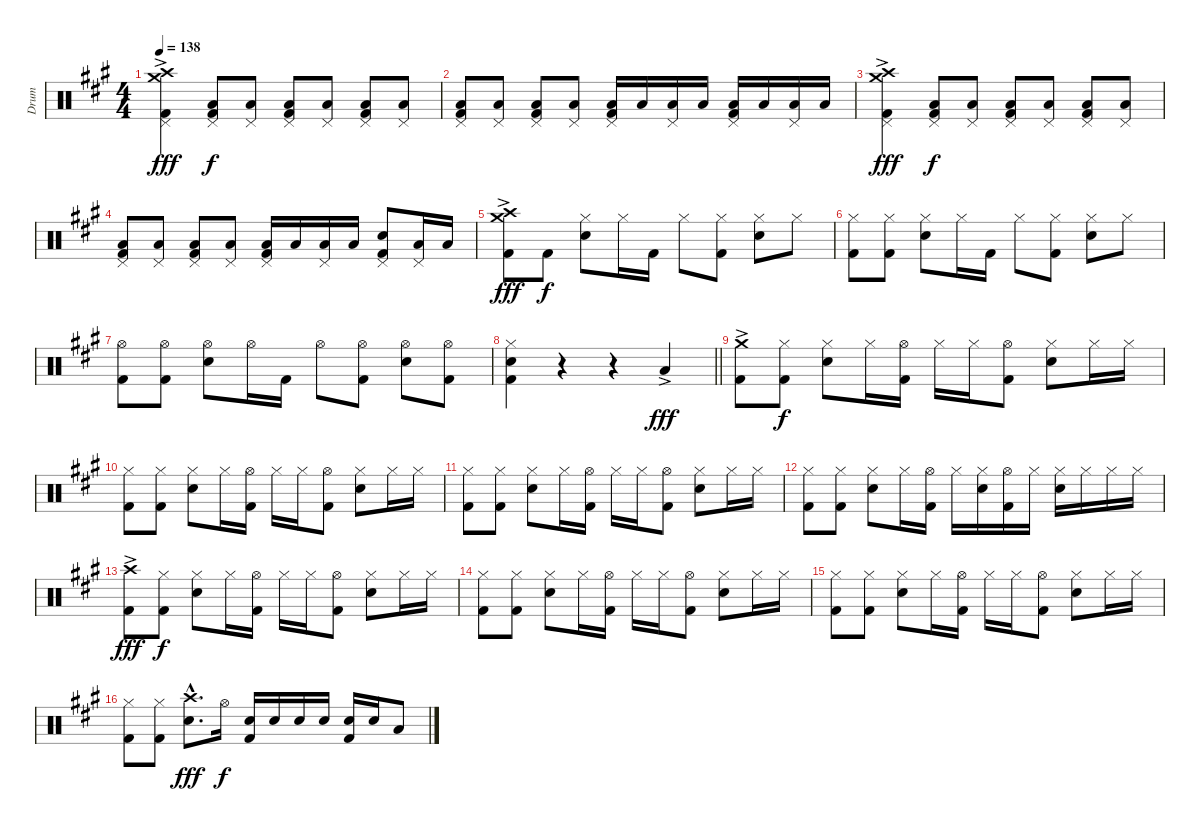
\track ("Drum" "Drum") {instrument percussion}
\staff {score}
\articulation defaults
\ts (4 4)
\tempo 138
\clef neutral
\ks a
("Crash medium (hit)"{ac} "Crash high (hit)"{ac} "Pedal Hi-Hat (hit)" "Kick (hit) 2").4{dy fff} ("Low Floor Tom (hit)" "Pedal Hi-Hat (hit)" "Kick (hit) 2").8{dy f} ("Low Floor Tom (hit)" "Pedal Hi-Hat (hit)").8 ("Low Floor Tom (hit)" "Pedal Hi-Hat (hit)" "Kick (hit) 2").8 ("Low Floor Tom (hit)" "Pedal Hi-Hat (hit)").8 ("Low Floor Tom (hit)" "Pedal Hi-Hat (hit)" "Kick (hit) 2").8 ("Low Floor Tom (hit)" "Pedal Hi-Hat (hit)").8 |
("Low Floor Tom (hit)" "Pedal Hi-Hat (hit)" "Kick (hit) 2").8 ("Low Floor Tom (hit)" "Pedal Hi-Hat (hit)").8 ("Low Floor Tom (hit)" "Pedal Hi-Hat (hit)" "Kick (hit) 2").8 ("Low Floor Tom (hit)" "Pedal Hi-Hat (hit)").8 ("Low Floor Tom (hit)" "Pedal Hi-Hat (hit)" "Kick (hit) 2").16 "Low Floor Tom (hit)".16 ("Low Floor Tom (hit)" "Pedal Hi-Hat (hit)").16 "Low Floor Tom (hit)".16 ("Low Floor Tom (hit)" "Pedal Hi-Hat (hit)" "Kick (hit) 2").16 "Low Floor Tom (hit)".16 ("Low Floor Tom (hit)" "Pedal Hi-Hat (hit)").16 "Low Floor Tom (hit)".16 |
("Crash medium (hit)"{ac} "Crash high (hit)"{ac} "Pedal Hi-Hat (hit)" "Kick (hit) 2").4{dy fff} ("Low Floor Tom (hit)" "Pedal Hi-Hat (hit)" "Kick (hit) 2").8{dy f} ("Low Floor Tom (hit)" "Pedal Hi-Hat (hit)").8 ("Low Floor Tom (hit)" "Pedal Hi-Hat (hit)" "Kick (hit) 2").8 ("Low Floor Tom (hit)" "Pedal Hi-Hat (hit)").8 ("Low Floor Tom (hit)" "Pedal Hi-Hat (hit)" "Kick (hit) 2").8 ("Low Floor Tom (hit)" "Pedal Hi-Hat (hit)").8 |
("Low Floor Tom (hit)" "Pedal Hi-Hat (hit)" "Kick (hit) 2").8 ("Low Floor Tom (hit)" "Pedal Hi-Hat (hit)").8 ("Low Floor Tom (hit)" "Pedal Hi-Hat (hit)" "Kick (hit) 2").8 ("Low Floor Tom (hit)" "Pedal Hi-Hat (hit)").8 ("Low Floor Tom (hit)" "Pedal Hi-Hat (hit)" "Kick (hit) 2").16 "Low Floor Tom (hit)".16 ("Low Floor Tom (hit)" "Pedal Hi-Hat (hit)").16 "Low Floor Tom (hit)".16 ("Pedal Hi-Hat (hit)" "Snare (hit) 2" "Kick (hit) 2").8 ("Low Floor Tom (hit)" "Pedal Hi-Hat (hit)").16 "Low Floor Tom (hit)".16 |
("Crash medium (hit)"{ac} "Crash high (hit)"{ac} "Kick (hit) 2").8{dy fff} "Kick (hit) 2".8{dy f} ("Hi-Hat (closed)" "Snare (hit) 2").8 "Hi-Hat (closed)".16 "Kick (hit) 2".16 "Hi-Hat (closed)".8 ("Hi-Hat (closed)" "Kick (hit) 2").8 ("Hi-Hat (closed)" "Snare (hit) 2").8 "Hi-Hat (closed)".8 |
("Hi-Hat (closed)" "Kick (hit) 2").8 ("Hi-Hat (closed)" "Kick (hit) 2").8 ("Hi-Hat (closed)" "Snare (hit) 2").8 "Hi-Hat (closed)".16 "Kick (hit) 2".16 "Hi-Hat (closed)".8 ("Hi-Hat (closed)" "Kick (hit) 2").8 ("Hi-Hat (closed)" "Snare (hit) 2").8 "Hi-Hat (closed)".8 |
("Hi-Hat (open)" "Kick (hit) 2").8 ("Hi-Hat (open)" "Kick (hit) 2").8 ("Hi-Hat (open)" "Snare (hit) 2").8 "Hi-Hat (open)".16 "Kick (hit) 2".16 "Hi-Hat (open)".8 ("Hi-Hat (open)" "Kick (hit) 2").8 ("Hi-Hat (open)" "Snare (hit) 2").8 ("Hi-Hat (open)" "Kick (hit) 2").8 |
\barLineRight lightlight
("Hi-Hat (closed)" "Snare (hit) 2" "Kick (hit) 2").4 r.4 r.4 "Low Floor Tom (hit)"{ac}.4{dy fff} |
("Crash medium (hit)"{ac} "Kick (hit) 2").8 ("Hi-Hat (closed)" "Kick (hit) 2").8{dy f} ("Hi-Hat (closed)" "Snare (hit) 2").8 "Hi-Hat (closed)".16 ("Hi-Hat (open)" "Kick (hit) 2").16 "Hi-Hat (closed)".16 "Hi-Hat (closed)".16 ("Hi-Hat (open)" "Kick (hit) 2").8 ("Hi-Hat (closed)" "Snare (hit) 2").8 "Hi-Hat (closed)".16 "Hi-Hat (closed)".16 |
("Hi-Hat (closed)" "Kick (hit) 2").8 ("Hi-Hat (closed)" "Kick (hit) 2").8 ("Hi-Hat (closed)" "Snare (hit) 2").8 "Hi-Hat (closed)".16 ("Hi-Hat (open)" "Kick (hit) 2").16 "Hi-Hat (closed)".16 "Hi-Hat (closed)".16 ("Hi-Hat (open)" "Kick (hit) 2").8 ("Hi-Hat (closed)" "Snare (hit) 2").8 "Hi-Hat (closed)".16 "Hi-Hat (closed)".16 |
("Hi-Hat (closed)" "Kick (hit) 2").8 ("Hi-Hat (closed)" "Kick (hit) 2").8 ("Hi-Hat (closed)" "Snare (hit) 2").8 "Hi-Hat (closed)".16 ("Hi-Hat (open)" "Kick (hit) 2").16 "Hi-Hat (closed)".16 "Hi-Hat (closed)".16 ("Hi-Hat (open)" "Kick (hit) 2").8 ("Hi-Hat (closed)" "Snare (hit) 2").8 "Hi-Hat (closed)".16 "Hi-Hat (closed)".16 |
("Hi-Hat (closed)" "Kick (hit) 2").8 ("Hi-Hat (closed)" "Kick (hit) 2").8 ("Hi-Hat (closed)" "Snare (hit) 2").8 "Hi-Hat (closed)".16 ("Hi-Hat (open)" "Kick (hit) 2").16 "Hi-Hat (closed)".16 ("Hi-Hat (closed)" "Snare (hit) 2").16 ("Hi-Hat (open)" "Kick (hit) 2").16 "Hi-Hat (closed)".16 ("Hi-Hat (closed)" "Snare (hit) 2").16 "Hi-Hat (closed)".16 "Hi-Hat (closed)".16 "Hi-Hat (closed)".16 |
("Crash high (hit)"{ac} "Kick (hit) 2").8{dy fff} ("Hi-Hat (closed)" "Kick (hit) 2").8{dy f} ("Hi-Hat (closed)" "Snare (hit) 2").8 "Hi-Hat (closed)".16 ("Hi-Hat (open)" "Kick (hit) 2").16 "Hi-Hat (closed)".16 "Hi-Hat (closed)".16 ("Hi-Hat (open)" "Kick (hit) 2").8 ("Hi-Hat (closed)" "Snare (hit) 2").8 "Hi-Hat (closed)".16 "Hi-Hat (closed)".16 |
("Hi-Hat (closed)" "Kick (hit) 2").8 ("Hi-Hat (closed)" "Kick (hit) 2").8 ("Hi-Hat (closed)" "Snare (hit) 2").8 "Hi-Hat (closed)".16 ("Hi-Hat (open)" "Kick (hit) 2").16 "Hi-Hat (closed)".16 "Hi-Hat (closed)".16 ("Hi-Hat (open)" "Kick (hit) 2").8 ("Hi-Hat (closed)" "Snare (hit) 2").8 "Hi-Hat (closed)".16 "Hi-Hat (closed)".16 |
("Hi-Hat (closed)" "Kick (hit) 2").8 ("Hi-Hat (closed)" "Kick (hit) 2").8 ("Hi-Hat (closed)" "Snare (hit) 2").8 "Hi-Hat (closed)".16 ("Hi-Hat (open)" "Kick (hit) 2").16 "Hi-Hat (closed)".16 "Hi-Hat (closed)".16 ("Hi-Hat (open)" "Kick (hit) 2").8 ("Hi-Hat (closed)" "Snare (hit) 2").8 "Hi-Hat (closed)".16 "Hi-Hat (closed)".16 |
("Hi-Hat (closed)" "Kick (hit) 2").8 ("Hi-Hat (closed)" "Kick (hit) 2").8 ("Crash high (hit)"{hac} "Snare (hit) 2"{hac}).8{d dy fff} "Hi-Hat (open)".16{dy f} ("Snare (hit) 2" "Kick (hit) 2").16 "Snare (hit) 2".16 "Snare (hit) 2".16 "Snare (hit) 2".16 ("Snare (hit) 2" "Kick (hit) 2").16 "Snare (hit) 2".16 "Low Floor Tom (hit)".8
